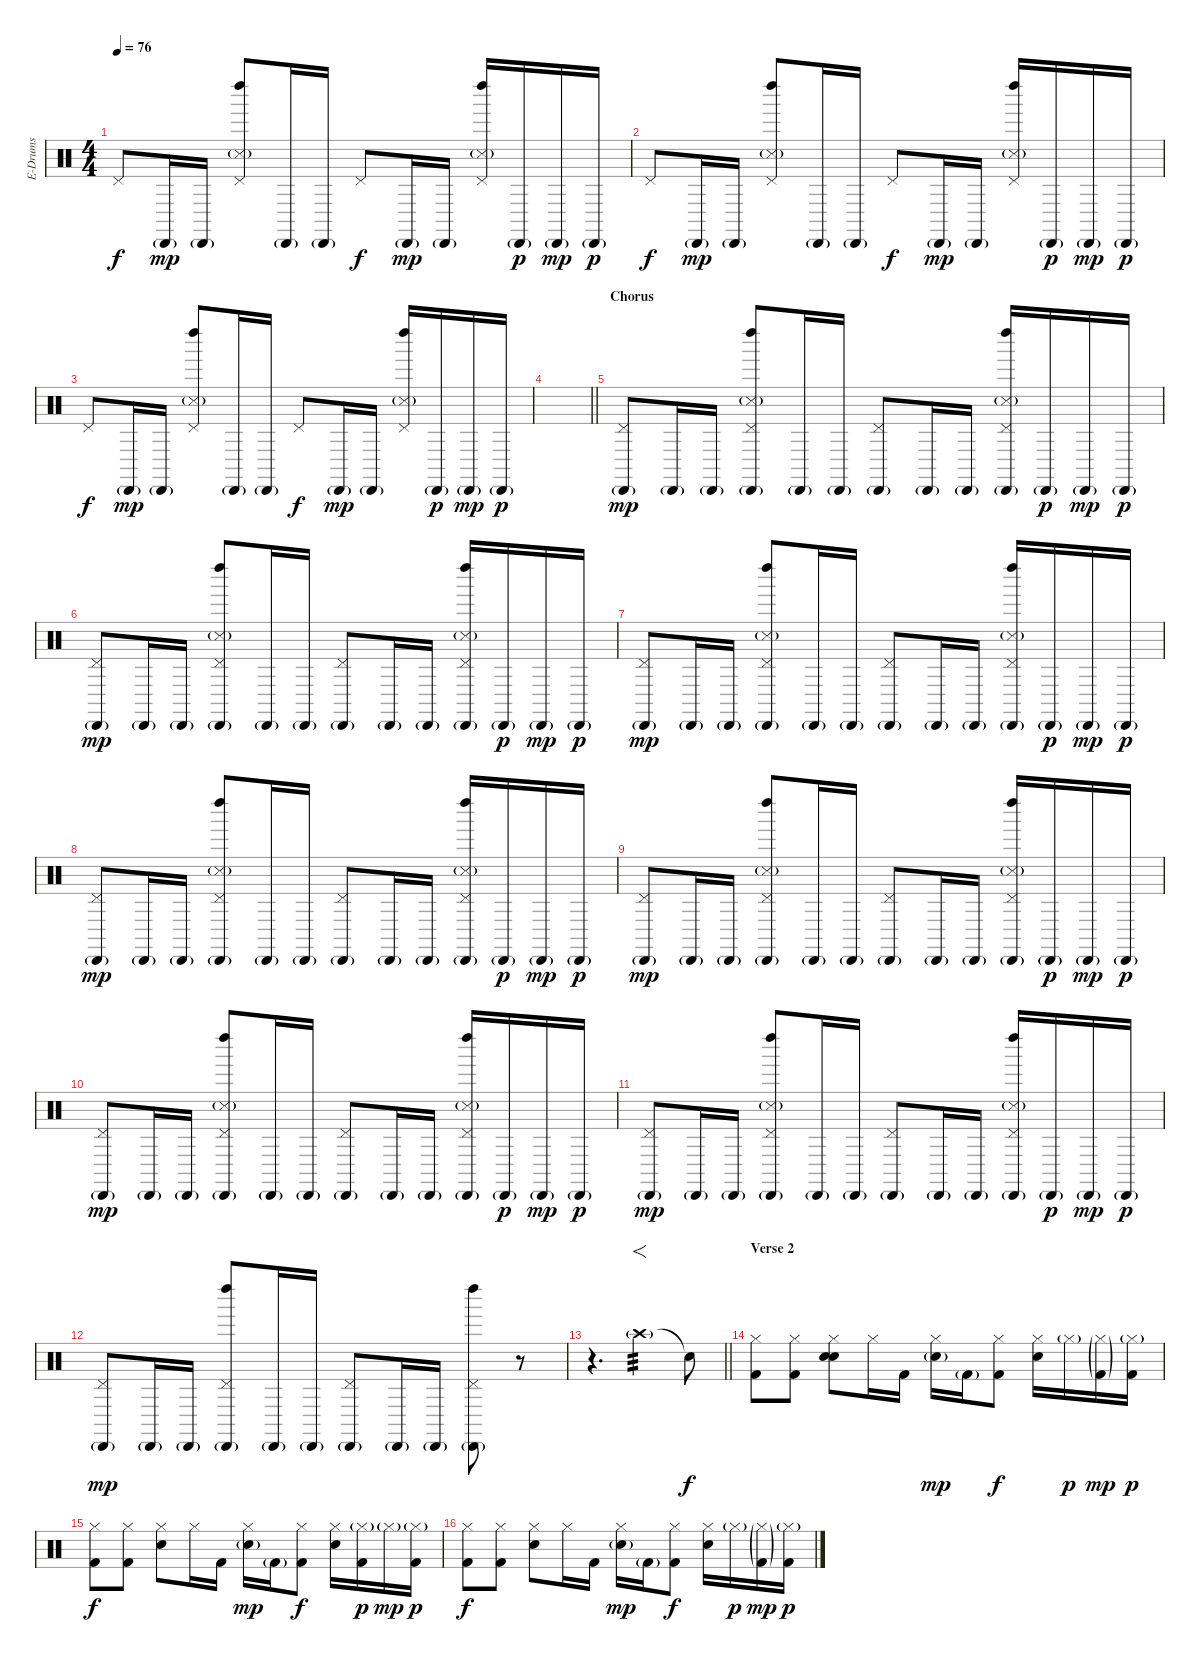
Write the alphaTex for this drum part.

\track ("E-Drums" "E-Drums") {instrument percussion}
\staff {score}
\articulation defaults
\ts (4 4)
\tempo 76
\clef neutral
\ks c "Pedal Hi-Hat (hit)".8{dy f} "Cabasa (hit)"{g}.16{dy mp} "Cabasa (hit)"{g}.16
("Left Maraca (hit)" "Pedal Hi-Hat (hit)" "Snare (side stick) 3"{g}).8 "Cabasa (hit)"{g}.16 "Cabasa (hit)"{g}.16 "Pedal Hi-Hat (hit)".8{dy f} "Cabasa (hit)"{g}.16{dy mp} "Cabasa (hit)"{g}.16 ("Left Maraca (hit)" "Pedal Hi-Hat (hit)" "Snare (side stick) 3"{g}).16 "Cabasa (hit)"{g}.16{dy p} "Cabasa (hit)"{g}.16{dy mp} "Cabasa (hit)"{g}.16{dy p} |
"Pedal Hi-Hat (hit)".8{dy f} "Cabasa (hit)"{g}.16{dy mp} "Cabasa (hit)"{g}.16 ("Left Maraca (hit)" "Pedal Hi-Hat (hit)" "Snare (side stick) 3"{g}).8 "Cabasa (hit)"{g}.16 "Cabasa (hit)"{g}.16 "Pedal Hi-Hat (hit)".8{dy f} "Cabasa (hit)"{g}.16{dy mp} "Cabasa (hit)"{g}.16 ("Left Maraca (hit)" "Pedal Hi-Hat (hit)" "Snare (side stick) 3"{g}).16 "Cabasa (hit)"{g}.16{dy p} "Cabasa (hit)"{g}.16{dy mp} "Cabasa (hit)"{g}.16{dy p} |
"Pedal Hi-Hat (hit)".8{dy f} "Cabasa (hit)"{g}.16{dy mp} "Cabasa (hit)"{g}.16 ("Left Maraca (hit)" "Pedal Hi-Hat (hit)" "Snare (side stick) 3"{g}).8 "Cabasa (hit)"{g}.16 "Cabasa (hit)"{g}.16 "Pedal Hi-Hat (hit)".8{dy f} "Cabasa (hit)"{g}.16{dy mp} "Cabasa (hit)"{g}.16 ("Left Maraca (hit)" "Pedal Hi-Hat (hit)" "Snare (side stick) 3"{g}).16 "Cabasa (hit)"{g}.16{dy p} "Cabasa (hit)"{g}.16{dy mp} "Cabasa (hit)"{g}.16{dy p} |
\barLineRight lightlight
|
\section ("" "Chorus")
("Pedal Hi-Hat (hit)" "Cabasa (hit)"{g}).8{dy mp} "Cabasa (hit)"{g}.16 "Cabasa (hit)"{g}.16 ("Left Maraca (hit)" "Pedal Hi-Hat (hit)" "Snare (side stick) 3"{g} "Cabasa (hit)"{g}).8 "Cabasa (hit)"{g}.16 "Cabasa (hit)"{g}.16 ("Pedal Hi-Hat (hit)" "Cabasa (hit)"{g}).8 "Cabasa (hit)"{g}.16 "Cabasa (hit)"{g}.16 ("Left Maraca (hit)" "Pedal Hi-Hat (hit)" "Snare (side stick) 3"{g} "Cabasa (hit)"{g}).16 "Cabasa (hit)"{g}.16{dy p} "Cabasa (hit)"{g}.16{dy mp} "Cabasa (hit)"{g}.16{dy p} |
("Pedal Hi-Hat (hit)" "Cabasa (hit)"{g}).8{dy mp} "Cabasa (hit)"{g}.16 "Cabasa (hit)"{g}.16 ("Left Maraca (hit)" "Pedal Hi-Hat (hit)" "Snare (side stick) 3"{g} "Cabasa (hit)"{g}).8 "Cabasa (hit)"{g}.16 "Cabasa (hit)"{g}.16 ("Pedal Hi-Hat (hit)" "Cabasa (hit)"{g}).8 "Cabasa (hit)"{g}.16 "Cabasa (hit)"{g}.16 ("Left Maraca (hit)" "Pedal Hi-Hat (hit)" "Snare (side stick) 3"{g} "Cabasa (hit)"{g}).16 "Cabasa (hit)"{g}.16{dy p} "Cabasa (hit)"{g}.16{dy mp} "Cabasa (hit)"{g}.16{dy p} |
("Pedal Hi-Hat (hit)" "Cabasa (hit)"{g}).8{dy mp} "Cabasa (hit)"{g}.16 "Cabasa (hit)"{g}.16 ("Left Maraca (hit)" "Pedal Hi-Hat (hit)" "Snare (side stick) 3"{g} "Cabasa (hit)"{g}).8 "Cabasa (hit)"{g}.16 "Cabasa (hit)"{g}.16 ("Pedal Hi-Hat (hit)" "Cabasa (hit)"{g}).8 "Cabasa (hit)"{g}.16 "Cabasa (hit)"{g}.16 ("Left Maraca (hit)" "Pedal Hi-Hat (hit)" "Snare (side stick) 3"{g} "Cabasa (hit)"{g}).16 "Cabasa (hit)"{g}.16{dy p} "Cabasa (hit)"{g}.16{dy mp} "Cabasa (hit)"{g}.16{dy p} |
("Pedal Hi-Hat (hit)" "Cabasa (hit)"{g}).8{dy mp} "Cabasa (hit)"{g}.16 "Cabasa (hit)"{g}.16 ("Left Maraca (hit)" "Pedal Hi-Hat (hit)" "Snare (side stick) 3"{g} "Cabasa (hit)"{g}).8 "Cabasa (hit)"{g}.16 "Cabasa (hit)"{g}.16 ("Pedal Hi-Hat (hit)" "Cabasa (hit)"{g}).8 "Cabasa (hit)"{g}.16 "Cabasa (hit)"{g}.16 ("Left Maraca (hit)" "Pedal Hi-Hat (hit)" "Snare (side stick) 3"{g} "Cabasa (hit)"{g}).16 "Cabasa (hit)"{g}.16{dy p} "Cabasa (hit)"{g}.16{dy mp} "Cabasa (hit)"{g}.16{dy p} |
("Pedal Hi-Hat (hit)" "Cabasa (hit)"{g}).8{dy mp} "Cabasa (hit)"{g}.16 "Cabasa (hit)"{g}.16 ("Left Maraca (hit)" "Pedal Hi-Hat (hit)" "Snare (side stick) 3"{g} "Cabasa (hit)"{g}).8 "Cabasa (hit)"{g}.16 "Cabasa (hit)"{g}.16 ("Pedal Hi-Hat (hit)" "Cabasa (hit)"{g}).8 "Cabasa (hit)"{g}.16 "Cabasa (hit)"{g}.16 ("Left Maraca (hit)" "Pedal Hi-Hat (hit)" "Snare (side stick) 3"{g} "Cabasa (hit)"{g}).16 "Cabasa (hit)"{g}.16{dy p} "Cabasa (hit)"{g}.16{dy mp} "Cabasa (hit)"{g}.16{dy p} |
("Pedal Hi-Hat (hit)" "Cabasa (hit)"{g}).8{dy mp} "Cabasa (hit)"{g}.16 "Cabasa (hit)"{g}.16 ("Left Maraca (hit)" "Pedal Hi-Hat (hit)" "Snare (side stick) 3"{g} "Cabasa (hit)"{g}).8 "Cabasa (hit)"{g}.16 "Cabasa (hit)"{g}.16 ("Pedal Hi-Hat (hit)" "Cabasa (hit)"{g}).8 "Cabasa (hit)"{g}.16 "Cabasa (hit)"{g}.16 ("Left Maraca (hit)" "Pedal Hi-Hat (hit)" "Snare (side stick) 3"{g} "Cabasa (hit)"{g}).16 "Cabasa (hit)"{g}.16{dy p} "Cabasa (hit)"{g}.16{dy mp} "Cabasa (hit)"{g}.16{dy p} |
("Pedal Hi-Hat (hit)" "Cabasa (hit)"{g}).8{dy mp} "Cabasa (hit)"{g}.16 "Cabasa (hit)"{g}.16 ("Left Maraca (hit)" "Pedal Hi-Hat (hit)" "Snare (side stick) 3"{g} "Cabasa (hit)"{g}).8 "Cabasa (hit)"{g}.16 "Cabasa (hit)"{g}.16 ("Pedal Hi-Hat (hit)" "Cabasa (hit)"{g}).8 "Cabasa (hit)"{g}.16 "Cabasa (hit)"{g}.16 ("Left Maraca (hit)" "Pedal Hi-Hat (hit)" "Snare (side stick) 3"{g} "Cabasa (hit)"{g}).16 "Cabasa (hit)"{g}.16{dy p} "Cabasa (hit)"{g}.16{dy mp} "Cabasa (hit)"{g}.16{dy p} |
("Pedal Hi-Hat (hit)" "Cabasa (hit)"{g}).8{dy mp} "Cabasa (hit)"{g}.16 "Cabasa (hit)"{g}.16 ("Left Maraca (hit)" "Pedal Hi-Hat (hit)" "Cabasa (hit)"{g}).8 "Cabasa (hit)"{g}.16 "Cabasa (hit)"{g}.16 ("Pedal Hi-Hat (hit)" "Cabasa (hit)"{g}).8 "Cabasa (hit)"{g}.16 "Cabasa (hit)"{g}.16 ("Left Maraca (hit)" "Pedal Hi-Hat (hit)" "Cabasa (hit)"{g}).8 r.8 |
\barLineRight lightlight
r.4{d} "Crash high (hit)"{g}.2{f tp 3} "Snare (hit)"{t}.8{dy f} |
\section ("" "Verse 2")
("Hi-Hat (closed)" "Kick (hit) 2").8 ("Hi-Hat (closed)" "Kick (hit) 2").8 ("Hi-Hat (closed)" "Electric Snare (hit)" "Snare (hit) 2").8 "Hi-Hat (closed)".16 "Kick (hit) 2".16 ("Hi-Hat (closed)" "Electric Snare (hit)"{g}).16{dy mp} "Kick (hit) 2"{g}.16 ("Hi-Hat (closed)" "Kick (hit) 2").8{dy f} ("Hi-Hat (closed)" "Electric Snare (hit)").16 "Hi-Hat (closed)"{g}.16{dy p} ("Hi-Hat (closed)"{g} "Kick (hit) 2"{g}).16{dy mp} ("Hi-Hat (closed)"{g} "Kick (hit) 2").16{dy p} |
("Hi-Hat (closed)" "Kick (hit) 2").8{dy f} ("Hi-Hat (closed)" "Kick (hit) 2").8 ("Hi-Hat (closed)" "Electric Snare (hit)").8 "Hi-Hat (closed)".16 "Kick (hit) 2".16 ("Hi-Hat (closed)" "Electric Snare (hit)"{g}).16{dy mp} "Kick (hit) 2"{g}.16 ("Hi-Hat (closed)" "Kick (hit) 2").8{dy f} ("Hi-Hat (closed)" "Electric Snare (hit)").16 ("Hi-Hat (closed)"{g} "Kick (hit) 2").16{dy p} "Hi-Hat (closed)"{g}.16{dy mp} ("Hi-Hat (closed)"{g} "Kick (hit) 2").16{dy p} |
("Hi-Hat (closed)" "Kick (hit) 2").8{dy f} ("Hi-Hat (closed)" "Kick (hit) 2").8 ("Hi-Hat (closed)" "Electric Snare (hit)").8 "Hi-Hat (closed)".16 "Kick (hit) 2".16 ("Hi-Hat (closed)" "Electric Snare (hit)"{g}).16{dy mp} "Kick (hit) 2"{g}.16 ("Hi-Hat (closed)" "Kick (hit) 2").8{dy f} ("Hi-Hat (closed)" "Electric Snare (hit)").16 "Hi-Hat (closed)"{g}.16{dy p} ("Hi-Hat (closed)"{g} "Kick (hit) 2"{g}).16{dy mp} ("Hi-Hat (closed)"{g} "Kick (hit) 2").16{dy p}
